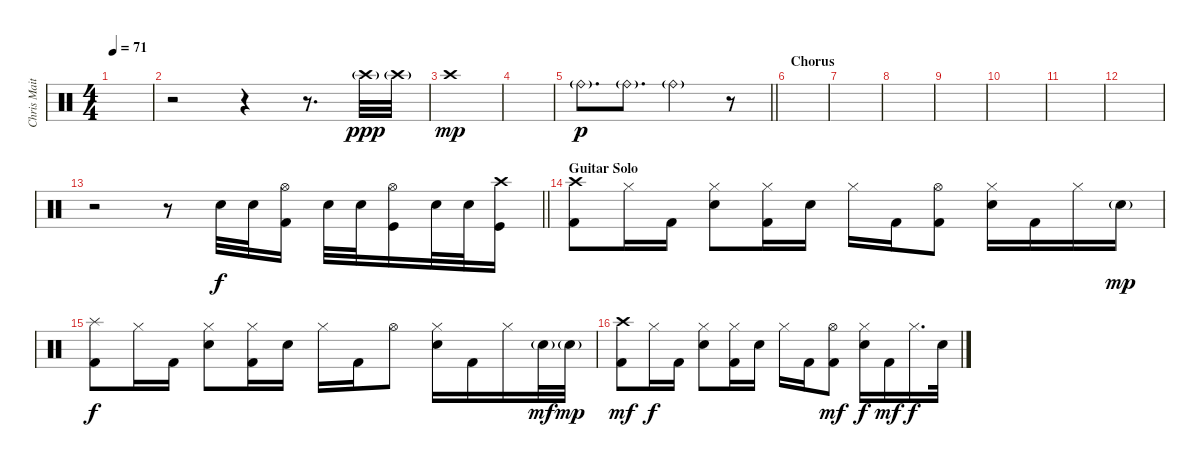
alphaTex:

\track ("Chris Maitland" "Chris Mait") {instrument percussion}
\staff {score}
\articulation defaults
\ts (4 4)
\tempo 71
\clef neutral
\ks c
|
r.2 r.4 r.8{d} "Crash high (hit)"{g}.32{dy ppp} "Crash high (hit)"{g}.32 |
"Crash high (hit)".1{dy mp} |
|
\barLineRight lightlight "Ride (bell)"{g}.8{d dy p} "Ride (bell)"{g}.8{d} "Ride (bell)"{g}.2
r.8 |
\section ("" "Chorus")
|
|
|
|
|
|
|
\barLineRight lightlight
r.2 r.8 "Snare (hit) 2".32{dy f} "Snare (hit) 2".32 ("Hi-Hat (open)" "Kick (hit) 2").16 "Snare (hit) 2".32 "Snare (hit) 2".32 ("Hi-Hat (open)" "Kick (hit)").16 "Snare (hit) 2".32 "Snare (hit) 2".32 ("Crash high (hit)" "Kick (hit)").16 |
\section ("" "Guitar Solo")
("Crash high (hit)" "Kick (hit) 2").8 "Hi-Hat (closed)".16 "Kick (hit) 2".16 ("Hi-Hat (closed)" "Snare (hit) 2").8 ("Hi-Hat (closed)" "Kick (hit) 2").16 "Snare (hit) 2".16 "Hi-Hat (closed)".16 "Kick (hit) 2".16 ("Hi-Hat (open)" "Kick (hit) 2").8 ("Hi-Hat (closed)" "Snare (hit) 2").16 "Kick (hit) 2".16 "Hi-Hat (closed)".16 "Snare (hit) 2"{g}.16{dy mp} |
("Splash (hit)" "Kick (hit) 2").8{dy f} "Hi-Hat (closed)".16 "Kick (hit) 2".16 ("Hi-Hat (closed)" "Snare (hit) 2").8 ("Hi-Hat (closed)" "Kick (hit) 2").16 "Snare (hit) 2".16 "Hi-Hat (closed)".16 "Kick (hit) 2".16 "Hi-Hat (open)".8 ("Hi-Hat (closed)" "Snare (hit) 2").16 "Kick (hit) 2".16 "Hi-Hat (closed)".16 "Snare (hit) 2"{g}.32{dy mf} "Snare (hit) 2"{g}.32{dy mp} |
("Crash high (hit)" "Kick (hit) 2").8{dy mf} "Hi-Hat (closed)".16{dy f} "Kick (hit) 2".16 ("Hi-Hat (closed)" "Snare (hit) 2").8 ("Hi-Hat (closed)" "Kick (hit) 2").16 "Snare (hit) 2".16 "Hi-Hat (closed)".16 "Kick (hit) 2".16 ("Hi-Hat (open)" "Kick (hit) 2").8{dy mf} ("Hi-Hat (closed)" "Snare (hit) 2").16{dy f} "Kick (hit) 2".16{dy mf} "Hi-Hat (closed)".16{d dy f} "Snare (hit) 2".32
